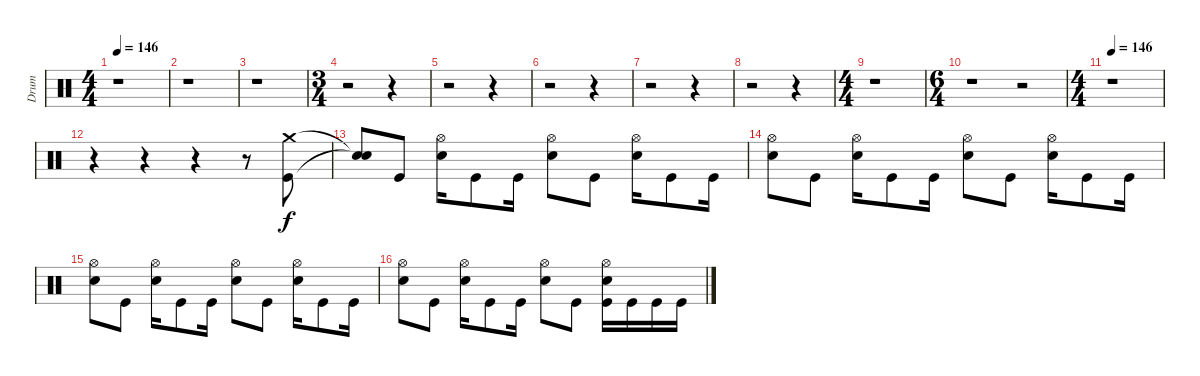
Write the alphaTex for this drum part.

\track ("Drum" "Drum") {instrument percussion}
\staff {score}
\articulation defaults
\ts (4 4)
\tempo 146
\tempo 140
\tempo 146
\clef neutral
\ks c
r.1{dy f} |
r.1 |
r.1 |
\ts (3 4)
r.2 r.4 |
r.2 r.4 |
r.2 r.4 |
r.2 r.4 |
r.2 r.4 |
\ts (4 4)
r.1 |
\ts (6 4)
r.1 r.2 |
\ts (4 4)
\tempo 146
r.1 |
r.4 r.4 r.4 r.8 ("Kick (hit)" "Crash medium (hit)").8 |
("Snare (hit)"{t} "Snare (hit)"{t}).8 "Kick (hit)".8 ("Electric Snare (hit)" "Hi-Hat (open)").16 "Kick (hit)".8 "Kick (hit)".16 ("Electric Snare (hit)" "Hi-Hat (open)").8 "Kick (hit)".8 ("Electric Snare (hit)" "Hi-Hat (open)").16 "Kick (hit)".8 "Kick (hit)".16 |
("Electric Snare (hit)" "Hi-Hat (open)").8 "Kick (hit)".8 ("Electric Snare (hit)" "Hi-Hat (open)").16 "Kick (hit)".8 "Kick (hit)".16 ("Electric Snare (hit)" "Hi-Hat (open)").8 "Kick (hit)".8 ("Electric Snare (hit)" "Hi-Hat (open)").16 "Kick (hit)".8 "Kick (hit)".16 |
("Electric Snare (hit)" "Hi-Hat (open)").8 "Kick (hit)".8 ("Electric Snare (hit)" "Hi-Hat (open)").16 "Kick (hit)".8 "Kick (hit)".16 ("Electric Snare (hit)" "Hi-Hat (open)").8 "Kick (hit)".8 ("Electric Snare (hit)" "Hi-Hat (open)").16 "Kick (hit)".8 "Kick (hit)".16 |
("Electric Snare (hit)" "Hi-Hat (open)").8 "Kick (hit)".8 ("Electric Snare (hit)" "Hi-Hat (open)").16 "Kick (hit)".8 "Kick (hit)".16 ("Electric Snare (hit)" "Hi-Hat (open)").8 "Kick (hit)".8 ("Kick (hit)" "Electric Snare (hit)" "Hi-Hat (open)").16 "Kick (hit)".16 "Kick (hit)".16 "Kick (hit)".16
